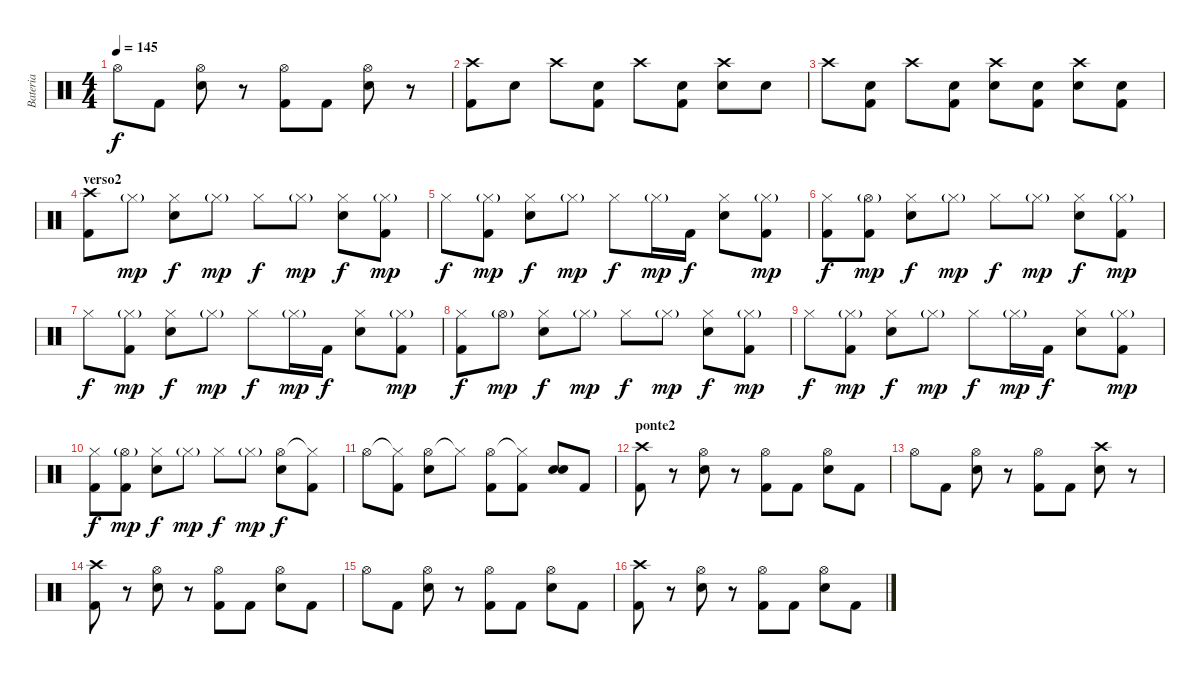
\track ("Bateria" "Bateria") {instrument percussion}
\staff {score}
\articulation defaults
\ts (4 4)
\tempo 145
\clef neutral
\ks c "Hi-Hat (open)".8{dy f} "Kick (hit) 2".8
("Hi-Hat (open)" "Electric Snare (hit)").8 r.8 ("Hi-Hat (open)" "Kick (hit) 2").8 "Kick (hit) 2".8 ("Hi-Hat (open)" "Electric Snare (hit)").8 r.8 |
("Crash high (hit)" "Kick (hit) 2").8 "Snare (hit)".8 "Crash high (hit)".8 ("Snare (hit)" "Kick (hit) 2").8 "Crash high (hit)".8 ("Snare (hit)" "Kick (hit) 2").8 ("Crash high (hit)" "Electric Snare (hit)").8 "Snare (hit)".8 |
"Crash high (hit)".8 ("Snare (hit)" "Kick (hit) 2").8 "Crash high (hit)".8 ("Snare (hit)" "Kick (hit) 2").8 ("Crash high (hit)" "Electric Snare (hit)").8 ("Snare (hit)" "Kick (hit) 2").8 ("Crash high (hit)" "Electric Snare (hit)").8 ("Snare (hit)" "Kick (hit) 2").8 |
\section ("" "verso2")
("Crash high (hit)" "Kick (hit) 2").8 "Hi-Hat (closed)"{g}.8{dy mp} ("Hi-Hat (closed)" "Electric Snare (hit)").8{dy f} "Hi-Hat (closed)"{g}.8{dy mp} "Hi-Hat (closed)".8{dy f} "Hi-Hat (closed)"{g}.8{dy mp} ("Hi-Hat (closed)" "Electric Snare (hit)").8{dy f} ("Hi-Hat (closed)"{g} "Kick (hit) 2").8{dy mp} |
"Hi-Hat (closed)".8{dy f} ("Hi-Hat (closed)"{g} "Kick (hit) 2").8{dy mp} ("Hi-Hat (closed)" "Electric Snare (hit)").8{dy f} "Hi-Hat (closed)"{g}.8{dy mp} "Hi-Hat (closed)".8{dy f} "Hi-Hat (closed)"{g}.16{dy mp} "Kick (hit) 2".16{dy f} ("Hi-Hat (closed)" "Electric Snare (hit)").8 ("Hi-Hat (closed)"{g} "Kick (hit) 2").8{dy mp} |
("Hi-Hat (closed)" "Kick (hit) 2").8{dy f} ("Hi-Hat (open)"{g} "Kick (hit) 2").8{dy mp} ("Hi-Hat (closed)" "Electric Snare (hit)").8{dy f} "Hi-Hat (closed)"{g}.8{dy mp} "Hi-Hat (closed)".8{dy f} "Hi-Hat (closed)"{g}.8{dy mp} ("Hi-Hat (closed)" "Electric Snare (hit)").8{dy f} ("Hi-Hat (closed)"{g} "Kick (hit) 2").8{dy mp} |
"Hi-Hat (closed)".8{dy f} ("Hi-Hat (closed)"{g} "Kick (hit) 2").8{dy mp} ("Hi-Hat (closed)" "Electric Snare (hit)").8{dy f} "Hi-Hat (closed)"{g}.8{dy mp} "Hi-Hat (closed)".8{dy f} "Hi-Hat (closed)"{g}.16{dy mp} "Kick (hit) 2".16{dy f} ("Hi-Hat (closed)" "Electric Snare (hit)").8 ("Hi-Hat (closed)"{g} "Kick (hit) 2").8{dy mp} |
("Hi-Hat (closed)" "Kick (hit) 2").8{dy f} "Hi-Hat (open)"{g}.8{dy mp} ("Hi-Hat (closed)" "Electric Snare (hit)").8{dy f} "Hi-Hat (closed)"{g}.8{dy mp} "Hi-Hat (closed)".8{dy f} "Hi-Hat (closed)"{g}.8{dy mp} ("Hi-Hat (closed)" "Electric Snare (hit)").8{dy f} ("Hi-Hat (closed)"{g} "Kick (hit) 2").8{dy mp} |
"Hi-Hat (closed)".8{dy f} ("Hi-Hat (closed)"{g} "Kick (hit) 2").8{dy mp} ("Hi-Hat (closed)" "Electric Snare (hit)").8{dy f} "Hi-Hat (closed)"{g}.8{dy mp} "Hi-Hat (closed)".8{dy f} "Hi-Hat (closed)"{g}.16{dy mp} "Kick (hit) 2".16{dy f} ("Hi-Hat (closed)" "Electric Snare (hit)").8 ("Hi-Hat (closed)"{g} "Kick (hit) 2").8{dy mp} |
("Hi-Hat (closed)" "Kick (hit) 2").8{dy f} ("Hi-Hat (open)"{g} "Kick (hit) 2").8{dy mp} ("Hi-Hat (closed)" "Electric Snare (hit)").8{dy f} "Hi-Hat (closed)"{g}.8{dy mp} "Hi-Hat (closed)".8{dy f} "Hi-Hat (closed)"{g}.8{dy mp} ("Hi-Hat (open)" "Electric Snare (hit)").8{dy f} ("Hi-Hat (closed)"{t} "Kick (hit) 2").8 |
"Hi-Hat (open)".8 ("Hi-Hat (closed)"{t} "Kick (hit) 2").8 ("Hi-Hat (open)" "Electric Snare (hit)").8 "Hi-Hat (closed)"{t}.8 ("Hi-Hat (open)" "Kick (hit) 2").8 ("Hi-Hat (closed)"{t} "Kick (hit) 2").8 ("Electric Snare (hit)" "Electric Snare (hit)").8 "Kick (hit) 2".8 |
\section ("" "ponte2")
("Crash high (hit)" "Kick (hit) 2").8 r.8 ("Hi-Hat (open)" "Electric Snare (hit)").8 r.8 ("Hi-Hat (open)" "Kick (hit) 2").8 "Kick (hit) 2".8 ("Hi-Hat (open)" "Electric Snare (hit)").8 "Kick (hit) 2".8 |
"Hi-Hat (open)".8 "Kick (hit) 2".8 ("Hi-Hat (open)" "Electric Snare (hit)").8 r.8 ("Hi-Hat (open)" "Kick (hit) 2").8 "Kick (hit) 2".8 ("Crash high (hit)" "Electric Snare (hit)").8 r.8 |
("Crash high (hit)" "Kick (hit) 2").8 r.8 ("Hi-Hat (open)" "Electric Snare (hit)").8 r.8 ("Hi-Hat (open)" "Kick (hit) 2").8 "Kick (hit) 2".8 ("Hi-Hat (open)" "Electric Snare (hit)").8 "Kick (hit) 2".8 |
"Hi-Hat (open)".8 "Kick (hit) 2".8 ("Hi-Hat (open)" "Electric Snare (hit)").8 r.8 ("Hi-Hat (open)" "Kick (hit) 2").8 "Kick (hit) 2".8 ("Hi-Hat (open)" "Electric Snare (hit)").8 "Kick (hit) 2".8 |
("Crash high (hit)" "Kick (hit) 2").8 r.8 ("Hi-Hat (open)" "Electric Snare (hit)").8 r.8 ("Hi-Hat (open)" "Kick (hit) 2").8 "Kick (hit) 2".8 ("Hi-Hat (open)" "Electric Snare (hit)").8 "Kick (hit) 2".8
